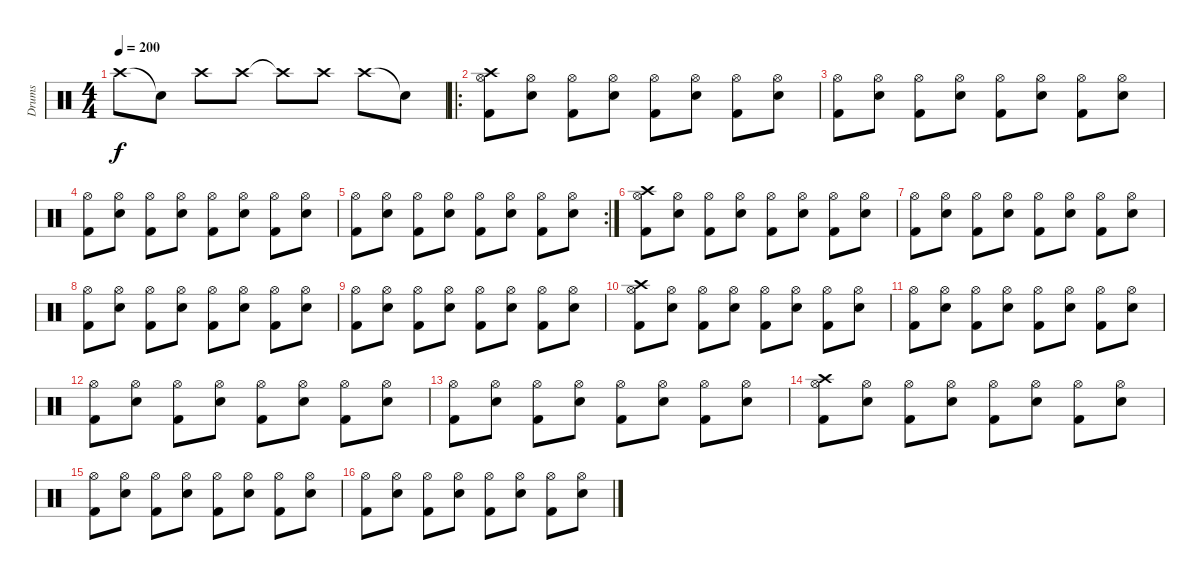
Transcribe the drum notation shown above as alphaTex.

\track ("Drums" "Drums") {instrument percussion}
\staff {score}
\articulation defaults
\ts (4 4)
\tempo 200
\clef neutral
\ks c "Crash high (hit)".8{dy f} "Snare (hit)"{t}.8 "Crash high (hit)".8 "Crash high (hit)".8 "Crash high (hit)"{t}.8 "Crash high (hit)".8 "Crash high (hit)".8 "Snare (hit)"{t}.8
|
\ro
("Kick (hit) 2" "Hi-Hat (open)" "Crash high (hit)").8 ("Snare (hit) 2" "Hi-Hat (open)").8 ("Kick (hit) 2" "Hi-Hat (open)").8 ("Snare (hit) 2" "Hi-Hat (open)").8 ("Kick (hit) 2" "Hi-Hat (open)").8 ("Snare (hit) 2" "Hi-Hat (open)").8 ("Kick (hit) 2" "Hi-Hat (open)").8 ("Snare (hit) 2" "Hi-Hat (open)").8 |
("Kick (hit) 2" "Hi-Hat (open)").8 ("Snare (hit) 2" "Hi-Hat (open)").8 ("Kick (hit) 2" "Hi-Hat (open)").8 ("Snare (hit) 2" "Hi-Hat (open)").8 ("Kick (hit) 2" "Hi-Hat (open)").8 ("Snare (hit) 2" "Hi-Hat (open)").8 ("Kick (hit) 2" "Hi-Hat (open)").8 ("Snare (hit) 2" "Hi-Hat (open)").8 |
("Kick (hit) 2" "Hi-Hat (open)").8 ("Snare (hit) 2" "Hi-Hat (open)").8 ("Kick (hit) 2" "Hi-Hat (open)").8 ("Snare (hit) 2" "Hi-Hat (open)").8 ("Kick (hit) 2" "Hi-Hat (open)").8 ("Snare (hit) 2" "Hi-Hat (open)").8 ("Kick (hit) 2" "Hi-Hat (open)").8 ("Snare (hit) 2" "Hi-Hat (open)").8 |
\rc 2
("Kick (hit) 2" "Hi-Hat (open)").8 ("Snare (hit) 2" "Hi-Hat (open)").8 ("Kick (hit) 2" "Hi-Hat (open)").8 ("Snare (hit) 2" "Hi-Hat (open)").8 ("Kick (hit) 2" "Hi-Hat (open)").8 ("Snare (hit) 2" "Hi-Hat (open)").8 ("Kick (hit) 2" "Hi-Hat (open)").8 ("Snare (hit) 2" "Hi-Hat (open)").8 |
("Kick (hit) 2" "Hi-Hat (open)" "Crash high (hit)").8 ("Snare (hit) 2" "Hi-Hat (open)").8 ("Kick (hit) 2" "Hi-Hat (open)").8 ("Snare (hit) 2" "Hi-Hat (open)").8 ("Kick (hit) 2" "Hi-Hat (open)").8 ("Snare (hit) 2" "Hi-Hat (open)").8 ("Kick (hit) 2" "Hi-Hat (open)").8 ("Snare (hit) 2" "Hi-Hat (open)").8 |
("Kick (hit) 2" "Hi-Hat (open)").8 ("Snare (hit) 2" "Hi-Hat (open)").8 ("Kick (hit) 2" "Hi-Hat (open)").8 ("Snare (hit) 2" "Hi-Hat (open)").8 ("Kick (hit) 2" "Hi-Hat (open)").8 ("Snare (hit) 2" "Hi-Hat (open)").8 ("Kick (hit) 2" "Hi-Hat (open)").8 ("Snare (hit) 2" "Hi-Hat (open)").8 |
("Kick (hit) 2" "Hi-Hat (open)").8 ("Snare (hit) 2" "Hi-Hat (open)").8 ("Kick (hit) 2" "Hi-Hat (open)").8 ("Snare (hit) 2" "Hi-Hat (open)").8 ("Kick (hit) 2" "Hi-Hat (open)").8 ("Snare (hit) 2" "Hi-Hat (open)").8 ("Kick (hit) 2" "Hi-Hat (open)").8 ("Snare (hit) 2" "Hi-Hat (open)").8 |
("Kick (hit) 2" "Hi-Hat (open)").8 ("Snare (hit) 2" "Hi-Hat (open)").8 ("Kick (hit) 2" "Hi-Hat (open)").8 ("Snare (hit) 2" "Hi-Hat (open)").8 ("Kick (hit) 2" "Hi-Hat (open)").8 ("Snare (hit) 2" "Hi-Hat (open)").8 ("Kick (hit) 2" "Hi-Hat (open)").8 ("Snare (hit) 2" "Hi-Hat (open)").8 |
("Kick (hit) 2" "Hi-Hat (open)" "Crash high (hit)").8 ("Snare (hit) 2" "Hi-Hat (open)").8 ("Kick (hit) 2" "Hi-Hat (open)").8 ("Snare (hit) 2" "Hi-Hat (open)").8 ("Kick (hit) 2" "Hi-Hat (open)").8 ("Snare (hit) 2" "Hi-Hat (open)").8 ("Kick (hit) 2" "Hi-Hat (open)").8 ("Snare (hit) 2" "Hi-Hat (open)").8 |
("Kick (hit) 2" "Hi-Hat (open)").8 ("Snare (hit) 2" "Hi-Hat (open)").8 ("Kick (hit) 2" "Hi-Hat (open)").8 ("Snare (hit) 2" "Hi-Hat (open)").8 ("Kick (hit) 2" "Hi-Hat (open)").8 ("Snare (hit) 2" "Hi-Hat (open)").8 ("Kick (hit) 2" "Hi-Hat (open)").8 ("Snare (hit) 2" "Hi-Hat (open)").8 |
("Kick (hit) 2" "Hi-Hat (open)").8 ("Snare (hit) 2" "Hi-Hat (open)").8 ("Kick (hit) 2" "Hi-Hat (open)").8 ("Snare (hit) 2" "Hi-Hat (open)").8 ("Kick (hit) 2" "Hi-Hat (open)").8 ("Snare (hit) 2" "Hi-Hat (open)").8 ("Kick (hit) 2" "Hi-Hat (open)").8 ("Snare (hit) 2" "Hi-Hat (open)").8 |
("Kick (hit) 2" "Hi-Hat (open)").8 ("Snare (hit) 2" "Hi-Hat (open)").8 ("Kick (hit) 2" "Hi-Hat (open)").8 ("Snare (hit) 2" "Hi-Hat (open)").8 ("Kick (hit) 2" "Hi-Hat (open)").8 ("Snare (hit) 2" "Hi-Hat (open)").8 ("Kick (hit) 2" "Hi-Hat (open)").8 ("Snare (hit) 2" "Hi-Hat (open)").8 |
("Kick (hit) 2" "Hi-Hat (open)" "Crash high (hit)").8 ("Snare (hit) 2" "Hi-Hat (open)").8 ("Kick (hit) 2" "Hi-Hat (open)").8 ("Snare (hit) 2" "Hi-Hat (open)").8 ("Kick (hit) 2" "Hi-Hat (open)").8 ("Snare (hit) 2" "Hi-Hat (open)").8 ("Kick (hit) 2" "Hi-Hat (open)").8 ("Snare (hit) 2" "Hi-Hat (open)").8 |
("Kick (hit) 2" "Hi-Hat (open)").8 ("Snare (hit) 2" "Hi-Hat (open)").8 ("Kick (hit) 2" "Hi-Hat (open)").8 ("Snare (hit) 2" "Hi-Hat (open)").8 ("Kick (hit) 2" "Hi-Hat (open)").8 ("Snare (hit) 2" "Hi-Hat (open)").8 ("Kick (hit) 2" "Hi-Hat (open)").8 ("Snare (hit) 2" "Hi-Hat (open)").8 |
("Kick (hit) 2" "Hi-Hat (open)").8 ("Snare (hit) 2" "Hi-Hat (open)").8 ("Kick (hit) 2" "Hi-Hat (open)").8 ("Snare (hit) 2" "Hi-Hat (open)").8 ("Kick (hit) 2" "Hi-Hat (open)").8 ("Snare (hit) 2" "Hi-Hat (open)").8 ("Kick (hit) 2" "Hi-Hat (open)").8 ("Snare (hit) 2" "Hi-Hat (open)").8
